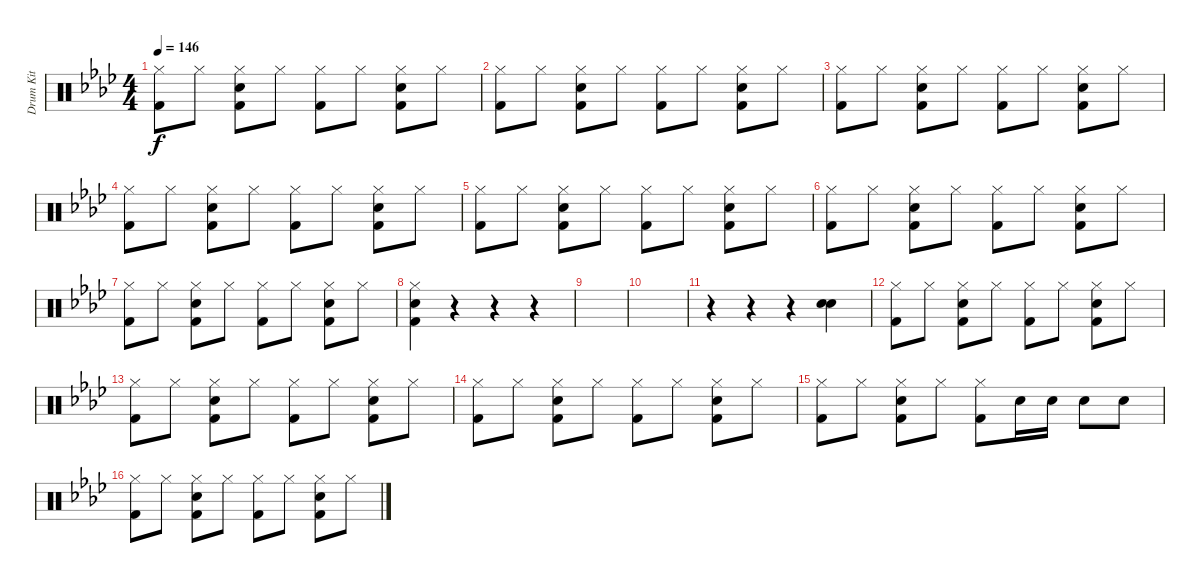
\track ("Drum Kit" "Drum Kit") {instrument percussion}
\staff {score}
\articulation defaults
\ts (4 4)
\tempo 146
\clef neutral
\ks ab
("Hi-Hat (closed)" "Kick (hit) 2").8{dy f} "Hi-Hat (closed)".8 ("Hi-Hat (closed)" "Electric Snare (hit)" "Kick (hit) 2").8 "Hi-Hat (closed)".8 ("Hi-Hat (closed)" "Kick (hit) 2").8 "Hi-Hat (closed)".8 ("Hi-Hat (closed)" "Electric Snare (hit)" "Kick (hit) 2").8 "Hi-Hat (closed)".8 |
("Hi-Hat (closed)" "Kick (hit) 2").8 "Hi-Hat (closed)".8 ("Hi-Hat (closed)" "Electric Snare (hit)" "Kick (hit) 2").8 "Hi-Hat (closed)".8 ("Hi-Hat (closed)" "Kick (hit) 2").8 "Hi-Hat (closed)".8 ("Hi-Hat (closed)" "Electric Snare (hit)" "Kick (hit) 2").8 "Hi-Hat (closed)".8 |
("Hi-Hat (closed)" "Kick (hit) 2").8 "Hi-Hat (closed)".8 ("Hi-Hat (closed)" "Electric Snare (hit)" "Kick (hit) 2").8 "Hi-Hat (closed)".8 ("Hi-Hat (closed)" "Kick (hit) 2").8 "Hi-Hat (closed)".8 ("Hi-Hat (closed)" "Electric Snare (hit)" "Kick (hit) 2").8 "Hi-Hat (closed)".8 |
("Hi-Hat (closed)" "Kick (hit) 2").8 "Hi-Hat (closed)".8 ("Hi-Hat (closed)" "Electric Snare (hit)" "Kick (hit) 2").8 "Hi-Hat (closed)".8 ("Hi-Hat (closed)" "Kick (hit) 2").8 "Hi-Hat (closed)".8 ("Hi-Hat (closed)" "Electric Snare (hit)" "Kick (hit) 2").8 "Hi-Hat (closed)".8 |
("Hi-Hat (closed)" "Kick (hit) 2").8 "Hi-Hat (closed)".8 ("Hi-Hat (closed)" "Electric Snare (hit)" "Kick (hit) 2").8 "Hi-Hat (closed)".8 ("Hi-Hat (closed)" "Kick (hit) 2").8 "Hi-Hat (closed)".8 ("Hi-Hat (closed)" "Electric Snare (hit)" "Kick (hit) 2").8 "Hi-Hat (closed)".8 |
("Hi-Hat (closed)" "Kick (hit) 2").8 "Hi-Hat (closed)".8 ("Hi-Hat (closed)" "Electric Snare (hit)" "Kick (hit) 2").8 "Hi-Hat (closed)".8 ("Hi-Hat (closed)" "Kick (hit) 2").8 "Hi-Hat (closed)".8 ("Hi-Hat (closed)" "Electric Snare (hit)" "Kick (hit) 2").8 "Hi-Hat (closed)".8 |
("Hi-Hat (closed)" "Kick (hit) 2").8 "Hi-Hat (closed)".8 ("Hi-Hat (closed)" "Electric Snare (hit)" "Kick (hit) 2").8 "Hi-Hat (closed)".8 ("Hi-Hat (closed)" "Kick (hit) 2").8 "Hi-Hat (closed)".8 ("Hi-Hat (closed)" "Electric Snare (hit)" "Kick (hit) 2").8 "Hi-Hat (closed)".8 |
("Hi-Hat (closed)" "Electric Snare (hit)" "Kick (hit) 2").4 r.4 r.4 r.4 |
|
|
r.4 r.4 r.4 ("Electric Snare (hit)" "Electric Snare (hit)").4 |
("Hi-Hat (closed)" "Kick (hit) 2").8 "Hi-Hat (closed)".8 ("Hi-Hat (closed)" "Electric Snare (hit)" "Kick (hit) 2").8 "Hi-Hat (closed)".8 ("Hi-Hat (closed)" "Kick (hit) 2").8 "Hi-Hat (closed)".8 ("Hi-Hat (closed)" "Electric Snare (hit)" "Kick (hit) 2").8 "Hi-Hat (closed)".8 |
("Hi-Hat (closed)" "Kick (hit) 2").8 "Hi-Hat (closed)".8 ("Hi-Hat (closed)" "Electric Snare (hit)" "Kick (hit) 2").8 "Hi-Hat (closed)".8 ("Hi-Hat (closed)" "Kick (hit) 2").8 "Hi-Hat (closed)".8 ("Hi-Hat (closed)" "Electric Snare (hit)" "Kick (hit) 2").8 "Hi-Hat (closed)".8 |
("Hi-Hat (closed)" "Kick (hit) 2").8 "Hi-Hat (closed)".8 ("Hi-Hat (closed)" "Electric Snare (hit)" "Kick (hit) 2").8 "Hi-Hat (closed)".8 ("Hi-Hat (closed)" "Kick (hit) 2").8 "Hi-Hat (closed)".8 ("Hi-Hat (closed)" "Electric Snare (hit)" "Kick (hit) 2").8 "Hi-Hat (closed)".8 |
("Hi-Hat (closed)" "Kick (hit) 2").8 "Hi-Hat (closed)".8 ("Hi-Hat (closed)" "Electric Snare (hit)" "Kick (hit) 2").8 "Hi-Hat (closed)".8 ("Hi-Hat (closed)" "Kick (hit) 2").8 "Electric Snare (hit)".16 "Electric Snare (hit)".16 "Electric Snare (hit)".8 "Electric Snare (hit)".8 |
("Hi-Hat (closed)" "Kick (hit) 2").8 "Hi-Hat (closed)".8 ("Hi-Hat (closed)" "Electric Snare (hit)" "Kick (hit) 2").8 "Hi-Hat (closed)".8 ("Hi-Hat (closed)" "Kick (hit) 2").8 "Hi-Hat (closed)".8 ("Hi-Hat (closed)" "Electric Snare (hit)" "Kick (hit) 2").8 "Hi-Hat (closed)".8
